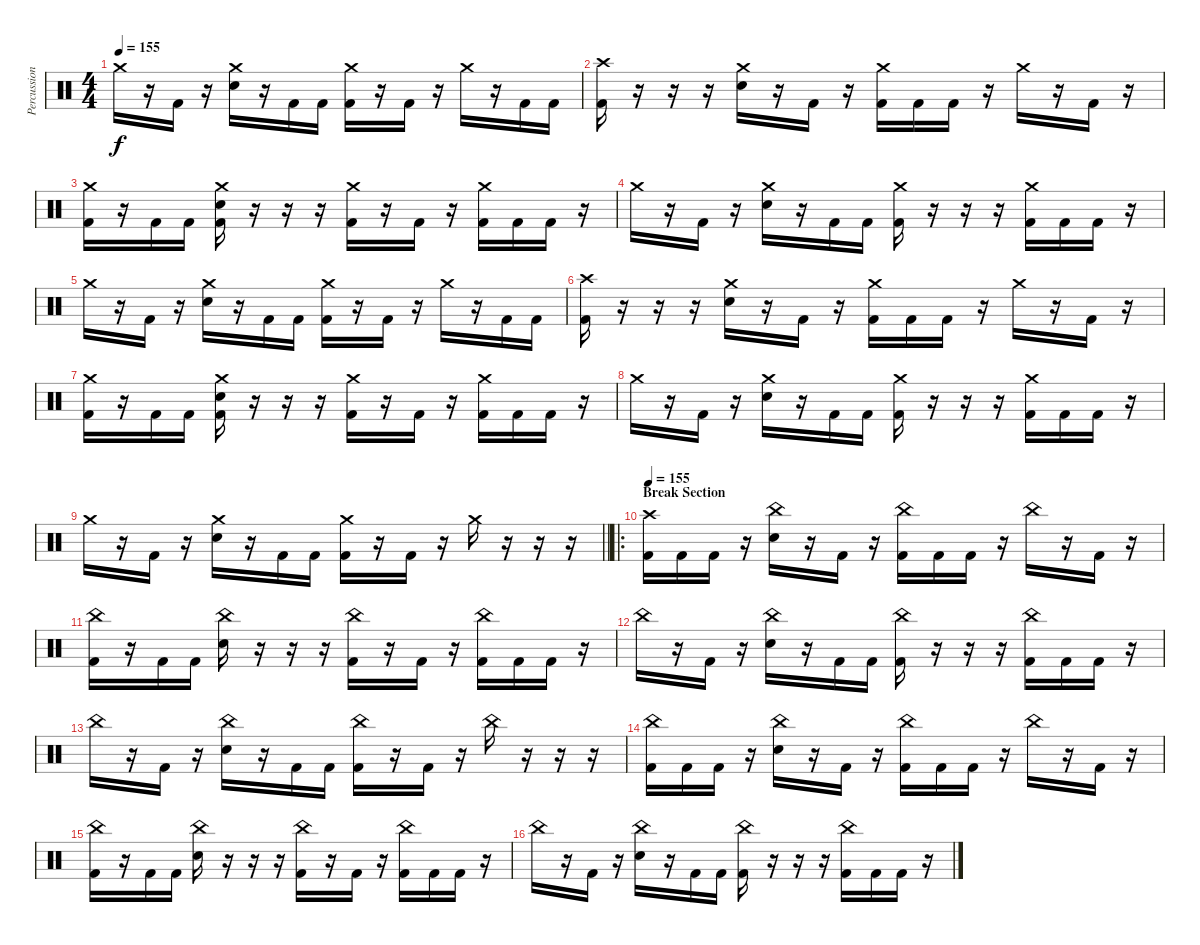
\track ("Percussion" "Percussion") {instrument percussion}
\staff {score}
\articulation defaults
\ts (4 4)
\tempo 155
\clef neutral
\ks c "Crash medium (hit)".16{dy f}
r.16 "Kick (hit) 2".16 r.16 ("Crash medium (hit)" "Electric Snare (hit)").16 r.16 "Kick (hit) 2".16 "Kick (hit) 2".16 ("Crash medium (hit)" "Kick (hit) 2").16 r.16 "Kick (hit) 2".16 r.16 "Crash medium (hit)".16 r.16 "Kick (hit) 2".16 "Kick (hit) 2".16 |
("Crash high (hit)" "Kick (hit) 2").16 r.16 r.16 r.16 ("Crash medium (hit)" "Electric Snare (hit)").16 r.16 "Kick (hit) 2".16 r.16 ("Crash medium (hit)" "Kick (hit) 2").16 "Kick (hit) 2".16 "Kick (hit) 2".16 r.16 "Crash medium (hit)".16 r.16 "Kick (hit) 2".16 r.16 |
("Crash medium (hit)" "Kick (hit) 2").16 r.16 "Kick (hit) 2".16 "Kick (hit) 2".16 ("Crash medium (hit)" "Electric Snare (hit)" "Kick (hit) 2").16 r.16 r.16 r.16 ("Crash medium (hit)" "Kick (hit) 2").16 r.16 "Kick (hit) 2".16 r.16 ("Crash medium (hit)" "Kick (hit) 2").16 "Kick (hit) 2".16 "Kick (hit) 2".16 r.16 |
"Crash medium (hit)".16 r.16 "Kick (hit) 2".16 r.16 ("Crash medium (hit)" "Electric Snare (hit)").16 r.16 "Kick (hit) 2".16 "Kick (hit) 2".16 ("Crash medium (hit)" "Kick (hit) 2").16 r.16 r.16 r.16 ("Crash medium (hit)" "Kick (hit) 2").16 "Kick (hit) 2".16 "Kick (hit) 2".16 r.16 |
"Crash medium (hit)".16 r.16 "Kick (hit) 2".16 r.16 ("Crash medium (hit)" "Electric Snare (hit)").16 r.16 "Kick (hit) 2".16 "Kick (hit) 2".16 ("Crash medium (hit)" "Kick (hit) 2").16 r.16 "Kick (hit) 2".16 r.16 "Crash medium (hit)".16 r.16 "Kick (hit) 2".16 "Kick (hit) 2".16 |
("Crash high (hit)" "Kick (hit) 2").16 r.16 r.16 r.16 ("Crash medium (hit)" "Electric Snare (hit)").16 r.16 "Kick (hit) 2".16 r.16 ("Crash medium (hit)" "Kick (hit) 2").16 "Kick (hit) 2".16 "Kick (hit) 2".16 r.16 "Crash medium (hit)".16 r.16 "Kick (hit) 2".16 r.16 |
("Crash medium (hit)" "Kick (hit) 2").16 r.16 "Kick (hit) 2".16 "Kick (hit) 2".16 ("Crash medium (hit)" "Electric Snare (hit)" "Kick (hit) 2").16 r.16 r.16 r.16 ("Crash medium (hit)" "Kick (hit) 2").16 r.16 "Kick (hit) 2".16 r.16 ("Crash medium (hit)" "Kick (hit) 2").16 "Kick (hit) 2".16 "Kick (hit) 2".16 r.16 |
"Crash medium (hit)".16 r.16 "Kick (hit) 2".16 r.16 ("Crash medium (hit)" "Electric Snare (hit)").16 r.16 "Kick (hit) 2".16 "Kick (hit) 2".16 ("Crash medium (hit)" "Kick (hit) 2").16 r.16 r.16 r.16 ("Crash medium (hit)" "Kick (hit) 2").16 "Kick (hit) 2".16 "Kick (hit) 2".16 r.16 |
\barLineRight lightlight "Crash medium (hit)".16
r.16 "Kick (hit) 2".16 r.16 ("Crash medium (hit)" "Electric Snare (hit)").16 r.16 "Kick (hit) 2".16 "Kick (hit) 2".16 ("Crash medium (hit)" "Kick (hit) 2").16 r.16 "Kick (hit) 2".16 r.16 "Crash medium (hit)".16 r.16 r.16 r.16 |
\ro
\section ("" "Break Section")
\tempo 155
("Crash high (hit)" "Kick (hit) 2").16 "Kick (hit) 2".16 "Kick (hit) 2".16 r.16 ("China (hit)" "Electric Snare (hit)").16 r.16 "Kick (hit) 2".16 r.16 ("China (hit)" "Kick (hit) 2").16 "Kick (hit) 2".16 "Kick (hit) 2".16 r.16 "China (hit)".16 r.16 "Kick (hit) 2".16 r.16 |
("China (hit)" "Kick (hit) 2").16 r.16 "Kick (hit) 2".16 "Kick (hit) 2".16 ("China (hit)" "Electric Snare (hit)").16 r.16 r.16 r.16 ("China (hit)" "Kick (hit) 2").16 r.16 "Kick (hit) 2".16 r.16 ("China (hit)" "Kick (hit) 2").16 "Kick (hit) 2".16 "Kick (hit) 2".16 r.16 |
"China (hit)".16 r.16 "Kick (hit) 2".16 r.16 ("China (hit)" "Electric Snare (hit)").16 r.16 "Kick (hit) 2".16 "Kick (hit) 2".16 ("China (hit)" "Kick (hit) 2").16 r.16 r.16 r.16 ("China (hit)" "Kick (hit) 2").16 "Kick (hit) 2".16 "Kick (hit) 2".16 r.16 |
"China (hit)".16 r.16 "Kick (hit) 2".16 r.16 ("China (hit)" "Electric Snare (hit)").16 r.16 "Kick (hit) 2".16 "Kick (hit) 2".16 ("China (hit)" "Kick (hit) 2").16 r.16 "Kick (hit) 2".16 r.16 "China (hit)".16 r.16 r.16 r.16 |
("China (hit)" "Kick (hit) 2").16 "Kick (hit) 2".16 "Kick (hit) 2".16 r.16 ("China (hit)" "Electric Snare (hit)").16 r.16 "Kick (hit) 2".16 r.16 ("China (hit)" "Kick (hit) 2").16 "Kick (hit) 2".16 "Kick (hit) 2".16 r.16 "China (hit)".16 r.16 "Kick (hit) 2".16 r.16 |
("China (hit)" "Kick (hit) 2").16 r.16 "Kick (hit) 2".16 "Kick (hit) 2".16 ("China (hit)" "Electric Snare (hit)").16 r.16 r.16 r.16 ("China (hit)" "Kick (hit) 2").16 r.16 "Kick (hit) 2".16 r.16 ("China (hit)" "Kick (hit) 2").16 "Kick (hit) 2".16 "Kick (hit) 2".16 r.16 |
"China (hit)".16 r.16 "Kick (hit) 2".16 r.16 ("China (hit)" "Electric Snare (hit)").16 r.16 "Kick (hit) 2".16 "Kick (hit) 2".16 ("China (hit)" "Kick (hit) 2").16 r.16 r.16 r.16 ("China (hit)" "Kick (hit) 2").16 "Kick (hit) 2".16 "Kick (hit) 2".16 r.16
